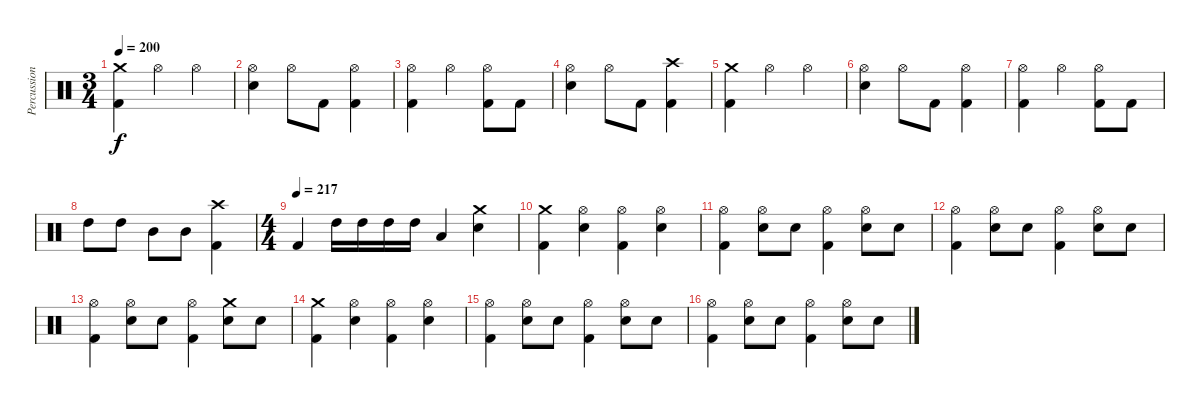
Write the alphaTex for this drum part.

\track ("Percussions" "Percussion") {instrument percussion}
\staff {score}
\articulation defaults
\ts (3 4)
\tempo 200
\clef neutral
\ks c
("Crash medium (hit)" "Kick (hit) 2").4{dy f} "Hi-Hat (open)".4 "Hi-Hat (open)".4 |
("Hi-Hat (open)" "Electric Snare (hit)").4 "Hi-Hat (open)".8 "Kick (hit) 2".8 ("Hi-Hat (open)" "Kick (hit) 2").4 |
("Hi-Hat (open)" "Kick (hit) 2").4 "Hi-Hat (open)".4 ("Hi-Hat (open)" "Kick (hit) 2").8 "Kick (hit) 2".8 |
("Hi-Hat (open)" "Electric Snare (hit)").4 "Hi-Hat (open)".8 "Kick (hit) 2".8 ("Crash high (hit)" "Kick (hit) 2").4 |
("Crash medium (hit)" "Kick (hit) 2").4 "Hi-Hat (open)".4 "Hi-Hat (open)".4 |
("Hi-Hat (open)" "Electric Snare (hit)").4 "Hi-Hat (open)".8 "Kick (hit) 2".8 ("Hi-Hat (open)" "Kick (hit) 2").4 |
("Hi-Hat (open)" "Kick (hit) 2").4 "Hi-Hat (open)".4 ("Hi-Hat (open)" "Kick (hit) 2").8 "Kick (hit) 2".8 |
"High Tom (hit)".8 "High Tom (hit)".8 "Mid Tom (hit)".8 "Mid Tom (hit)".8 ("Crash high (hit)" "Kick (hit) 2").4 |
\ts (4 4)
\tempo (217)
"Kick (hit) 2".4 "High Tom (hit)".16 "High Tom (hit)".16 "High Tom (hit)".16 "High Tom (hit)".16 "Low Tom (hit)".4 ("Crash medium (hit)" "Electric Snare (hit)").4 |
("Crash medium (hit)" "Kick (hit) 2").4 ("Hi-Hat (open)" "Electric Snare (hit)").4 ("Hi-Hat (open)" "Kick (hit) 2").4 ("Hi-Hat (open)" "Electric Snare (hit)").4 |
("Hi-Hat (open)" "Kick (hit) 2").4 ("Hi-Hat (open)" "Electric Snare (hit)").8 "Electric Snare (hit)".8 ("Hi-Hat (open)" "Kick (hit) 2").4 ("Hi-Hat (open)" "Electric Snare (hit)").8 "Electric Snare (hit)".8 |
("Hi-Hat (open)" "Kick (hit) 2").4 ("Hi-Hat (open)" "Electric Snare (hit)").8 "Electric Snare (hit)".8 ("Hi-Hat (open)" "Kick (hit) 2").4 ("Hi-Hat (open)" "Electric Snare (hit)").8 "Electric Snare (hit)".8 |
("Hi-Hat (open)" "Kick (hit) 2").4 ("Hi-Hat (open)" "Electric Snare (hit)").8 "Electric Snare (hit)".8 ("Hi-Hat (open)" "Kick (hit) 2").4 ("Crash medium (hit)" "Electric Snare (hit)").8 "Electric Snare (hit)".8 |
("Crash medium (hit)" "Kick (hit) 2").4 ("Hi-Hat (open)" "Electric Snare (hit)").4 ("Hi-Hat (open)" "Kick (hit) 2").4 ("Hi-Hat (open)" "Electric Snare (hit)").4 |
("Hi-Hat (open)" "Kick (hit) 2").4 ("Hi-Hat (open)" "Electric Snare (hit)").8 "Electric Snare (hit)".8 ("Hi-Hat (open)" "Kick (hit) 2").4 ("Hi-Hat (open)" "Electric Snare (hit)").8 "Electric Snare (hit)".8 |
("Hi-Hat (open)" "Kick (hit) 2").4 ("Hi-Hat (open)" "Electric Snare (hit)").8 "Electric Snare (hit)".8 ("Hi-Hat (open)" "Kick (hit) 2").4 ("Hi-Hat (open)" "Electric Snare (hit)").8 "Electric Snare (hit)".8
